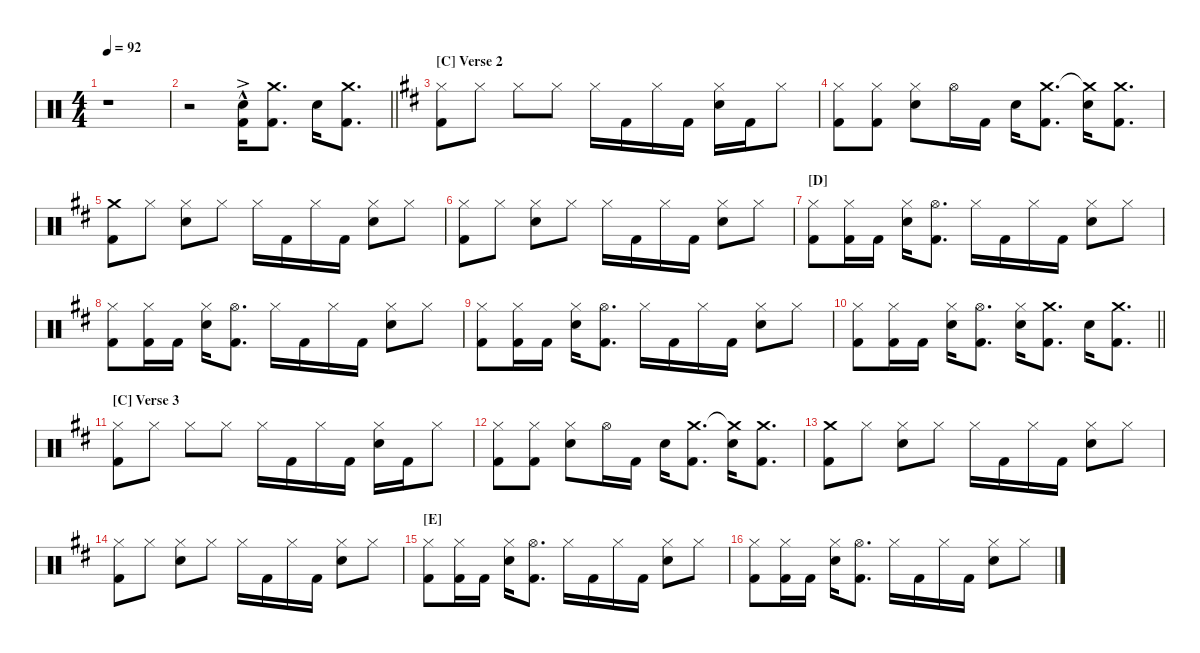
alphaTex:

\hideDynamics
\bracketExtendMode nobrackets
\singleTrackTrackNamePolicy hidden
\multiTrackTrackNamePolicy hidden
\firstSystemTrackNameMode fullname
\firstSystemTrackNameOrientation horizontal
\otherSystemsTrackNameOrientation horizontal
\track ("Drumkit" "Drums") {instrument percussion}
\staff {score}
\articulation defaults
\ts (4 4)
\tempo 92
\clef neutral
\ks c
r.1{dy f beam Down} |
\barLineRight lightlight
r.2{beam Down} ("Snare (hit) 2"{hac} "Kick (hit) 2"{ac}).16{beam Down} ("Crash medium (hit)" "Kick (hit) 2").8{d beam Down} "Snare (hit) 2".16{beam Down} ("Crash medium (hit)" "Kick (hit) 2").8{d beam Down} |
\section ("C" "Verse 2")
\ks d
("Hi-Hat (closed)"{acc forcenatural} "Kick (hit) 2"{acc forcenatural}).8{beam Down} "Hi-Hat (closed)"{acc forcenatural}.8{beam Down} "Hi-Hat (closed)"{acc forcenatural}.8{beam Down} "Hi-Hat (closed)"{acc forcenatural}.8{beam Down} "Hi-Hat (closed)"{acc forcenatural}.16{beam Down} "Kick (hit) 2"{acc forcenatural}.16{beam Down} "Hi-Hat (closed)"{acc forcenatural}.16{beam Down} "Kick (hit) 2"{acc forcenatural}.16{beam Down} ("Hi-Hat (closed)"{acc forcenatural} "Snare (hit) 2"{acc forcenatural}).16{beam Down} "Kick (hit) 2"{acc forcenatural}.16{beam Down} "Hi-Hat (closed)"{acc forcenatural}.8{beam Down} |
("Hi-Hat (closed)"{acc forcenatural} "Kick (hit) 2"{acc forcenatural}).8{beam Down} ("Hi-Hat (closed)"{acc forcenatural} "Kick (hit) 2"{acc forcenatural}).8{beam Down} ("Hi-Hat (closed)"{acc forcenatural} "Snare (hit) 2"{acc forcenatural}).8{beam Down} "Hi-Hat (open)"{acc forcenatural}.16{beam Down} "Kick (hit) 2"{acc forcenatural}.16{beam Down} "Snare (hit) 2"{acc forcenatural}.16{beam Down} ("Crash medium (hit)"{acc forcenatural} "Kick (hit) 2"{acc forcenatural}).8{d beam Down} ("Crash medium (hit)"{t acc forcenatural} "Snare (hit) 2"{acc forcenatural}).16{beam Down} ("Crash medium (hit)"{acc forcenatural} "Kick (hit) 2"{acc forcenatural}).8{d beam Down} |
("Crash medium (hit)"{acc forcenatural} "Kick (hit) 2"{acc forcenatural}).8{beam Down} "Hi-Hat (closed)"{acc forcenatural}.8{beam Down} ("Hi-Hat (closed)"{acc forcenatural} "Snare (hit) 2"{acc forcenatural}).8{beam Down} "Hi-Hat (closed)"{acc forcenatural}.8{beam Down} "Hi-Hat (closed)"{acc forcenatural}.16{beam Down} "Kick (hit) 2"{acc forcenatural}.16{beam Down} "Hi-Hat (closed)"{acc forcenatural}.16{beam Down} "Kick (hit) 2"{acc forcenatural}.16{beam Down} ("Hi-Hat (closed)"{acc forcenatural} "Snare (hit) 2"{acc forcenatural}).8{beam Down} "Hi-Hat (closed)"{acc forcenatural}.8{beam Down} |
("Hi-Hat (closed)"{acc forcenatural} "Kick (hit) 2"{acc forcenatural}).8{beam Down} "Hi-Hat (closed)"{acc forcenatural}.8{beam Down} ("Hi-Hat (closed)"{acc forcenatural} "Snare (hit) 2"{acc forcenatural}).8{beam Down} "Hi-Hat (closed)"{acc forcenatural}.8{beam Down} "Hi-Hat (closed)"{acc forcenatural}.16{beam Down} "Kick (hit) 2"{acc forcenatural}.16{beam Down} "Hi-Hat (closed)"{acc forcenatural}.16{beam Down} "Kick (hit) 2"{acc forcenatural}.16{beam Down} ("Hi-Hat (closed)"{acc forcenatural} "Snare (hit) 2"{acc forcenatural}).8{beam Down} "Hi-Hat (closed)"{acc forcenatural}.8{beam Down} |
\section ("D" "")
("Hi-Hat (closed)"{acc forcenatural} "Kick (hit) 2"{acc forcenatural}).8{beam Down} ("Hi-Hat (closed)"{acc forcenatural} "Kick (hit) 2"{acc forcenatural}).16{beam Down} "Kick (hit) 2"{acc forcenatural}.16{beam Down} ("Hi-Hat (closed)"{acc forcenatural} "Snare (hit) 2"{acc forcenatural}).16{beam Down} ("Hi-Hat (open)"{acc forcenatural} "Kick (hit) 2"{acc forcenatural}).8{d beam Down} "Hi-Hat (closed)"{acc forcenatural}.16{beam Down} "Kick (hit) 2"{acc forcenatural}.16{beam Down} "Hi-Hat (closed)"{acc forcenatural}.16{beam Down} "Kick (hit) 2"{acc forcenatural}.16{beam Down} ("Hi-Hat (closed)"{acc forcenatural} "Snare (hit) 2"{acc forcenatural}).8{beam Down} "Hi-Hat (closed)"{acc forcenatural}.8{beam Down} |
("Hi-Hat (closed)"{acc forcenatural} "Kick (hit) 2"{acc forcenatural}).8{beam Down} ("Hi-Hat (closed)"{acc forcenatural} "Kick (hit) 2"{acc forcenatural}).16{beam Down} "Kick (hit) 2"{acc forcenatural}.16{beam Down} ("Hi-Hat (closed)"{acc forcenatural} "Snare (hit) 2"{acc forcenatural}).16{beam Down} ("Hi-Hat (open)"{acc forcenatural} "Kick (hit) 2"{acc forcenatural}).8{d beam Down} "Hi-Hat (closed)"{acc forcenatural}.16{beam Down} "Kick (hit) 2"{acc forcenatural}.16{beam Down} "Hi-Hat (closed)"{acc forcenatural}.16{beam Down} "Kick (hit) 2"{acc forcenatural}.16{beam Down} ("Hi-Hat (closed)"{acc forcenatural} "Snare (hit) 2"{acc forcenatural}).8{beam Down} "Hi-Hat (closed)"{acc forcenatural}.8{beam Down} |
("Hi-Hat (closed)"{acc forcenatural} "Kick (hit) 2"{acc forcenatural}).8{beam Down} ("Hi-Hat (closed)"{acc forcenatural} "Kick (hit) 2"{acc forcenatural}).16{beam Down} "Kick (hit) 2"{acc forcenatural}.16{beam Down} ("Hi-Hat (closed)"{acc forcenatural} "Snare (hit) 2"{acc forcenatural}).16{beam Down} ("Hi-Hat (open)"{acc forcenatural} "Kick (hit) 2"{acc forcenatural}).8{d beam Down} "Hi-Hat (closed)"{acc forcenatural}.16{beam Down} "Kick (hit) 2"{acc forcenatural}.16{beam Down} "Hi-Hat (closed)"{acc forcenatural}.16{beam Down} "Kick (hit) 2"{acc forcenatural}.16{beam Down} ("Hi-Hat (closed)"{acc forcenatural} "Snare (hit) 2"{acc forcenatural}).8{beam Down} "Hi-Hat (closed)"{acc forcenatural}.8{beam Down} |
\barLineRight lightlight
("Hi-Hat (closed)"{acc forcenatural} "Kick (hit) 2"{acc forcenatural}).8{beam Down} ("Hi-Hat (closed)"{acc forcenatural} "Kick (hit) 2"{acc forcenatural}).16{beam Down} "Kick (hit) 2"{acc forcenatural}.16{beam Down} ("Hi-Hat (closed)"{acc forcenatural} "Snare (hit) 2"{acc forcenatural}).16{beam Down} ("Hi-Hat (open)"{acc forcenatural} "Kick (hit) 2"{acc forcenatural}).8{d beam Down} ("Hi-Hat (closed)"{acc forcenatural} "Snare (hit) 2"{acc forcenatural}).16{beam Down} ("Crash medium (hit)"{acc forcenatural} "Kick (hit) 2"{acc forcenatural}).8{d beam Down} "Snare (hit) 2"{acc forcenatural}.16{beam Down} ("Crash medium (hit)"{acc forcenatural} "Kick (hit) 2"{acc forcenatural}).8{d beam Down} |
\section ("C" "Verse 3")
("Hi-Hat (closed)"{acc forcenatural} "Kick (hit) 2"{acc forcenatural}).8{beam Down} "Hi-Hat (closed)"{acc forcenatural}.8{beam Down} "Hi-Hat (closed)"{acc forcenatural}.8{beam Down} "Hi-Hat (closed)"{acc forcenatural}.8{beam Down} "Hi-Hat (closed)"{acc forcenatural}.16{beam Down} "Kick (hit) 2"{acc forcenatural}.16{beam Down} "Hi-Hat (closed)"{acc forcenatural}.16{beam Down} "Kick (hit) 2"{acc forcenatural}.16{beam Down} ("Hi-Hat (closed)"{acc forcenatural} "Snare (hit) 2"{acc forcenatural}).16{beam Down} "Kick (hit) 2"{acc forcenatural}.16{beam Down} "Hi-Hat (closed)"{acc forcenatural}.8{beam Down} |
("Hi-Hat (closed)"{acc forcenatural} "Kick (hit) 2"{acc forcenatural}).8{beam Down} ("Hi-Hat (closed)"{acc forcenatural} "Kick (hit) 2"{acc forcenatural}).8{beam Down} ("Hi-Hat (closed)"{acc forcenatural} "Snare (hit) 2"{acc forcenatural}).8{beam Down} "Hi-Hat (open)"{acc forcenatural}.16{beam Down} "Kick (hit) 2"{acc forcenatural}.16{beam Down} "Snare (hit) 2"{acc forcenatural}.16{beam Down} ("Crash medium (hit)"{acc forcenatural} "Kick (hit) 2"{acc forcenatural}).8{d beam Down} ("Crash medium (hit)"{t acc forcenatural} "Snare (hit) 2"{acc forcenatural}).16{beam Down} ("Crash medium (hit)"{acc forcenatural} "Kick (hit) 2"{acc forcenatural}).8{d beam Down} |
("Crash medium (hit)"{acc forcenatural} "Kick (hit) 2"{acc forcenatural}).8{beam Down} "Hi-Hat (closed)"{acc forcenatural}.8{beam Down} ("Hi-Hat (closed)"{acc forcenatural} "Snare (hit) 2"{acc forcenatural}).8{beam Down} "Hi-Hat (closed)"{acc forcenatural}.8{beam Down} "Hi-Hat (closed)"{acc forcenatural}.16{beam Down} "Kick (hit) 2"{acc forcenatural}.16{beam Down} "Hi-Hat (closed)"{acc forcenatural}.16{beam Down} "Kick (hit) 2"{acc forcenatural}.16{beam Down} ("Hi-Hat (closed)"{acc forcenatural} "Snare (hit) 2"{acc forcenatural}).8{beam Down} "Hi-Hat (closed)"{acc forcenatural}.8{beam Down} |
("Hi-Hat (closed)"{acc forcenatural} "Kick (hit) 2"{acc forcenatural}).8{beam Down} "Hi-Hat (closed)"{acc forcenatural}.8{beam Down} ("Hi-Hat (closed)"{acc forcenatural} "Snare (hit) 2"{acc forcenatural}).8{beam Down} "Hi-Hat (closed)"{acc forcenatural}.8{beam Down} "Hi-Hat (closed)"{acc forcenatural}.16{beam Down} "Kick (hit) 2"{acc forcenatural}.16{beam Down} "Hi-Hat (closed)"{acc forcenatural}.16{beam Down} "Kick (hit) 2"{acc forcenatural}.16{beam Down} ("Hi-Hat (closed)"{acc forcenatural} "Snare (hit) 2"{acc forcenatural}).8{beam Down} "Hi-Hat (closed)"{acc forcenatural}.8{beam Down} |
\section ("E" "")
("Hi-Hat (closed)"{acc forcenatural} "Kick (hit) 2"{acc forcenatural}).8{beam Down} ("Hi-Hat (closed)"{acc forcenatural} "Kick (hit) 2"{acc forcenatural}).16{beam Down} "Kick (hit) 2"{acc forcenatural}.16{beam Down} ("Hi-Hat (closed)"{acc forcenatural} "Snare (hit) 2"{acc forcenatural}).16{beam Down} ("Hi-Hat (open)"{acc forcenatural} "Kick (hit) 2"{acc forcenatural}).8{d beam Down} "Hi-Hat (closed)"{acc forcenatural}.16{beam Down} "Kick (hit) 2"{acc forcenatural}.16{beam Down} "Hi-Hat (closed)"{acc forcenatural}.16{beam Down} "Kick (hit) 2"{acc forcenatural}.16{beam Down} ("Hi-Hat (closed)"{acc forcenatural} "Snare (hit) 2"{acc forcenatural}).8{beam Down} "Hi-Hat (closed)"{acc forcenatural}.8{beam Down} |
("Hi-Hat (closed)"{acc forcenatural} "Kick (hit) 2"{acc forcenatural}).8{beam Down} ("Hi-Hat (closed)"{acc forcenatural} "Kick (hit) 2"{acc forcenatural}).16{beam Down} "Kick (hit) 2"{acc forcenatural}.16{beam Down} ("Hi-Hat (closed)"{acc forcenatural} "Snare (hit) 2"{acc forcenatural}).16{beam Down} ("Hi-Hat (open)"{acc forcenatural} "Kick (hit) 2"{acc forcenatural}).8{d beam Down} "Hi-Hat (closed)"{acc forcenatural}.16{beam Down} "Kick (hit) 2"{acc forcenatural}.16{beam Down} "Hi-Hat (closed)"{acc forcenatural}.16{beam Down} "Kick (hit) 2"{acc forcenatural}.16{beam Down} ("Hi-Hat (closed)"{acc forcenatural} "Snare (hit) 2"{acc forcenatural}).8{beam Down} "Hi-Hat (closed)"{acc forcenatural}.8{beam Down}
